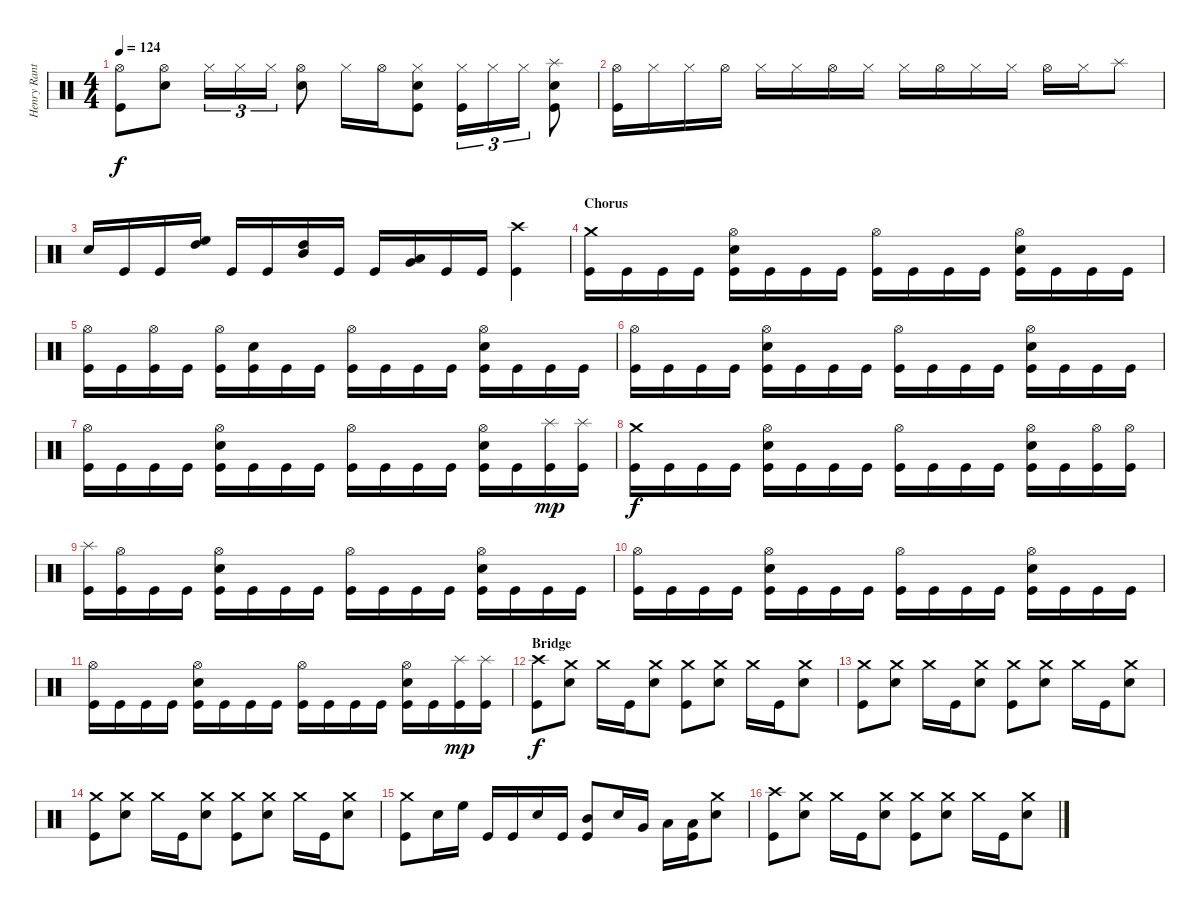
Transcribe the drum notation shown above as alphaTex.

\track ("Henry Ranta" "Henry Rant") {instrument percussion}
\staff {score}
\articulation defaults
\ts (4 4)
\tempo 124
\clef neutral
\ks c
("Hi-Hat (open)" "Kick (hit)").8{dy f} ("Hi-Hat (open)" "Electric Snare (hit)").8 "Hi-Hat (closed)".16{tu (3 2)} "Hi-Hat (closed)".16{tu (3 2)} "Hi-Hat (closed)".16{tu (3 2)} ("Hi-Hat (open)" "Electric Snare (hit)").8 "Hi-Hat (closed)".16 "Hi-Hat (open)".16 ("Hi-Hat (closed)" "Electric Snare (hit)" "Kick (hit)").8 ("Hi-Hat (closed)" "Kick (hit)").16{tu (3 2)} "Hi-Hat (closed)".16{tu (3 2)} "Hi-Hat (closed)".16{tu (3 2)} ("Splash (hit)" "Electric Snare (hit)" "Kick (hit)").8 |
("Hi-Hat (open)" "Kick (hit)").16 "Hi-Hat (closed)".16 "Hi-Hat (closed)".16 "Hi-Hat (open)".16 "Hi-Hat (closed)".16 "Hi-Hat (closed)".16 "Hi-Hat (open)".16 "Hi-Hat (closed)".16 "Hi-Hat (closed)".16 "Hi-Hat (open)".16 "Hi-Hat (closed)".16 "Hi-Hat (closed)".16 "Hi-Hat (open)".16 "Hi-Hat (closed)".16 "Splash (hit)".8 |
"Electric Snare (hit)".16 "Kick (hit)".16 "Kick (hit)".16 ("High Floor Tom (hit)" "High Tom (hit)").16 "Kick (hit)".16 "Kick (hit)".16 ("High Tom (hit)" "Mid Tom (hit)").16 "Kick (hit)".16 "Kick (hit)".16 ("Low Tom (hit)" "Very Low Tom (hit)").16 "Kick (hit)".16 "Kick (hit)".16 ("Crash high (hit)" "Kick (hit)").4 |
\section ("" "Chorus")
("Crash medium (hit)" "Kick (hit)").16 "Kick (hit)".16 "Kick (hit)".16 "Kick (hit)".16 ("Hi-Hat (open)" "Electric Snare (hit)" "Kick (hit)").16 "Kick (hit)".16 "Kick (hit)".16 "Kick (hit)".16 ("Hi-Hat (open)" "Kick (hit)").16 "Kick (hit)".16 "Kick (hit)".16 "Kick (hit)".16 ("Hi-Hat (open)" "Electric Snare (hit)" "Kick (hit)").16 "Kick (hit)".16 "Kick (hit)".16 "Kick (hit)".16 |
("Hi-Hat (open)" "Kick (hit)").16 "Kick (hit)".16 ("Hi-Hat (open)" "Kick (hit)").16 "Kick (hit)".16 ("Hi-Hat (open)" "Kick (hit)").16 ("Electric Snare (hit)" "Kick (hit)").16 "Kick (hit)".16 "Kick (hit)".16 ("Hi-Hat (open)" "Kick (hit)").16 "Kick (hit)".16 "Kick (hit)".16 "Kick (hit)".16 ("Hi-Hat (open)" "Electric Snare (hit)" "Kick (hit)").16 "Kick (hit)".16 "Kick (hit)".16 "Kick (hit)".16 |
("Hi-Hat (open)" "Kick (hit)").16 "Kick (hit)".16 "Kick (hit)".16 "Kick (hit)".16 ("Hi-Hat (open)" "Electric Snare (hit)" "Kick (hit)").16 "Kick (hit)".16 "Kick (hit)".16 "Kick (hit)".16 ("Hi-Hat (open)" "Kick (hit)").16 "Kick (hit)".16 "Kick (hit)".16 "Kick (hit)".16 ("Hi-Hat (open)" "Electric Snare (hit)" "Kick (hit)").16 "Kick (hit)".16 "Kick (hit)".16 "Kick (hit)".16 |
("Hi-Hat (open)" "Kick (hit)").16 "Kick (hit)".16 "Kick (hit)".16 "Kick (hit)".16 ("Hi-Hat (open)" "Electric Snare (hit)" "Kick (hit)").16 "Kick (hit)".16 "Kick (hit)".16 "Kick (hit)".16 ("Hi-Hat (open)" "Kick (hit)").16 "Kick (hit)".16 "Kick (hit)".16 "Kick (hit)".16 ("Hi-Hat (open)" "Electric Snare (hit)" "Kick (hit)").16 "Kick (hit)".16 ("Splash (hit)" "Kick (hit)").16{dy mp} ("Splash (hit)" "Kick (hit)").16 |
("Crash medium (hit)" "Kick (hit)").16{dy f} "Kick (hit)".16 "Kick (hit)".16 "Kick (hit)".16 ("Hi-Hat (open)" "Electric Snare (hit)" "Kick (hit)").16 "Kick (hit)".16 "Kick (hit)".16 "Kick (hit)".16 ("Hi-Hat (open)" "Kick (hit)").16 "Kick (hit)".16 "Kick (hit)".16 "Kick (hit)".16 ("Hi-Hat (open)" "Electric Snare (hit)" "Kick (hit)").16 "Kick (hit)".16 ("Hi-Hat (open)" "Kick (hit)").16 ("Hi-Hat (open)" "Kick (hit)").16 |
("Splash (hit)" "Kick (hit)").16 ("Hi-Hat (open)" "Kick (hit)").16 "Kick (hit)".16 "Kick (hit)".16 ("Hi-Hat (open)" "Electric Snare (hit)" "Kick (hit)").16 "Kick (hit)".16 "Kick (hit)".16 "Kick (hit)".16 ("Hi-Hat (open)" "Kick (hit)").16 "Kick (hit)".16 "Kick (hit)".16 "Kick (hit)".16 ("Hi-Hat (open)" "Electric Snare (hit)" "Kick (hit)").16 "Kick (hit)".16 "Kick (hit)".16 "Kick (hit)".16 |
("Hi-Hat (open)" "Kick (hit)").16 "Kick (hit)".16 "Kick (hit)".16 "Kick (hit)".16 ("Hi-Hat (open)" "Electric Snare (hit)" "Kick (hit)").16 "Kick (hit)".16 "Kick (hit)".16 "Kick (hit)".16 ("Hi-Hat (open)" "Kick (hit)").16 "Kick (hit)".16 "Kick (hit)".16 "Kick (hit)".16 ("Hi-Hat (open)" "Electric Snare (hit)" "Kick (hit)").16 "Kick (hit)".16 "Kick (hit)".16 "Kick (hit)".16 |
("Hi-Hat (open)" "Kick (hit)").16 "Kick (hit)".16 "Kick (hit)".16 "Kick (hit)".16 ("Hi-Hat (open)" "Electric Snare (hit)" "Kick (hit)").16 "Kick (hit)".16 "Kick (hit)".16 "Kick (hit)".16 ("Hi-Hat (open)" "Kick (hit)").16 "Kick (hit)".16 "Kick (hit)".16 "Kick (hit)".16 ("Hi-Hat (open)" "Electric Snare (hit)" "Kick (hit)").16 "Kick (hit)".16 ("Splash (hit)" "Kick (hit)").16{dy mp} ("Splash (hit)" "Kick (hit)").16 |
\section ("" "Bridge")
("Crash high (hit)" "Kick (hit)").8{dy f} ("Crash medium (hit)" "Electric Snare (hit)").8 "Crash medium (hit)".16 "Kick (hit)".16 ("Crash medium (hit)" "Electric Snare (hit)").8 ("Crash medium (hit)" "Kick (hit)").8 ("Crash medium (hit)" "Electric Snare (hit)").8 "Crash medium (hit)".16 "Kick (hit)".16 ("Crash medium (hit)" "Electric Snare (hit)").8 |
("Crash medium (hit)" "Kick (hit)").8 ("Crash medium (hit)" "Electric Snare (hit)").8 "Crash medium (hit)".16 "Kick (hit)".16 ("Crash medium (hit)" "Electric Snare (hit)").8 ("Crash medium (hit)" "Kick (hit)").8 ("Crash medium (hit)" "Electric Snare (hit)").8 "Crash medium (hit)".16 "Kick (hit)".16 ("Crash medium (hit)" "Electric Snare (hit)").8 |
("Crash medium (hit)" "Kick (hit)").8 ("Crash medium (hit)" "Electric Snare (hit)").8 "Crash medium (hit)".16 "Kick (hit)".16 ("Crash medium (hit)" "Electric Snare (hit)").8 ("Crash medium (hit)" "Kick (hit)").8 ("Crash medium (hit)" "Electric Snare (hit)").8 "Crash medium (hit)".16 "Kick (hit)".16 ("Crash medium (hit)" "Electric Snare (hit)").8 |
("Crash medium (hit)" "Kick (hit)").8 "Electric Snare (hit)".16 "High Floor Tom (hit)".16 "Kick (hit)".16 "Kick (hit)".16 "Electric Snare (hit)".16 "Kick (hit)".16 ("Mid Tom (hit)" "Kick (hit)").8 "Electric Snare (hit)".16 "Very Low Tom (hit)".16 "Low Tom (hit)".16 ("Low Tom (hit)" "Kick (hit)").16 ("Crash medium (hit)" "Electric Snare (hit)").8 |
("Crash high (hit)" "Kick (hit)").8 ("Crash medium (hit)" "Electric Snare (hit)").8 "Crash medium (hit)".16 "Kick (hit)".16 ("Crash medium (hit)" "Electric Snare (hit)").8 ("Crash medium (hit)" "Kick (hit)").8 ("Crash medium (hit)" "Electric Snare (hit)").8 "Crash medium (hit)".16 "Kick (hit)".16 ("Crash medium (hit)" "Electric Snare (hit)").8
